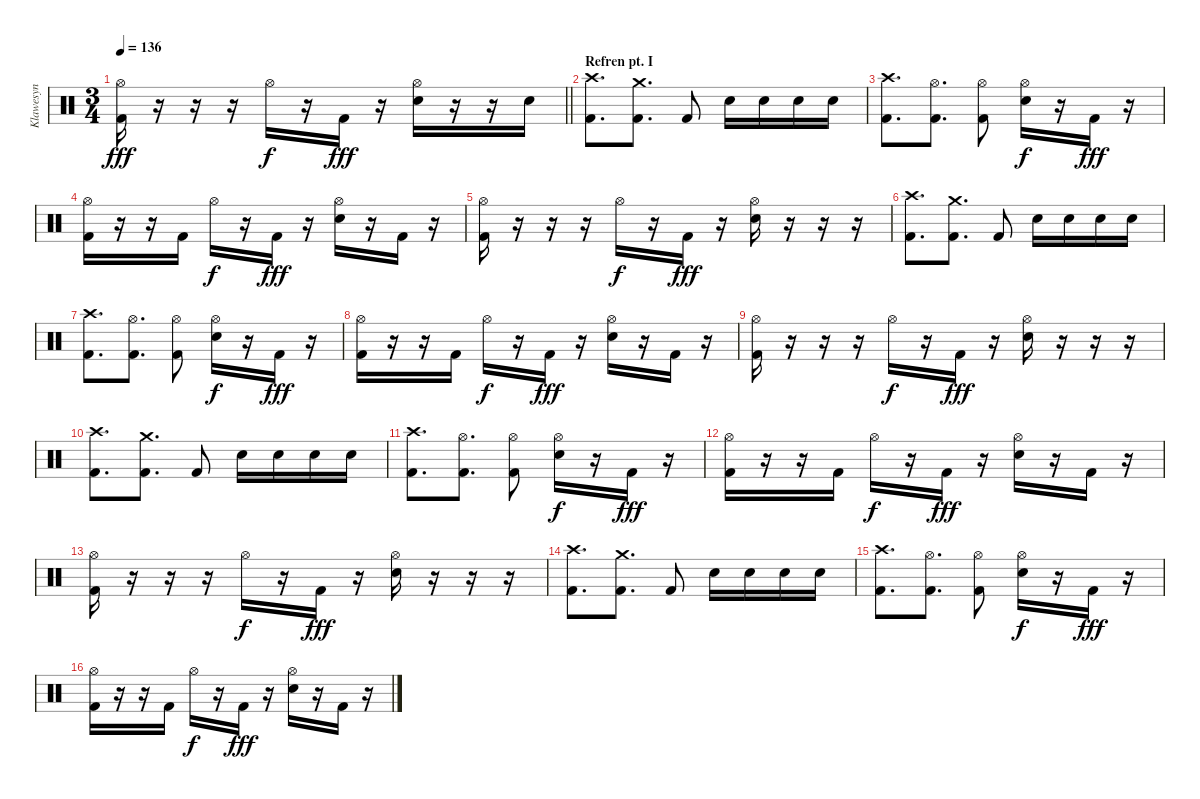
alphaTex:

\track ("Klawesyn" "Klawesyn") {instrument percussion}
\staff {score}
\articulation defaults
\ts (3 4)
\tempo 136
\clef neutral
\barLineRight lightlight
\ks c
("Hi-Hat (open)" "Kick (hit) 2").16{dy fff} r.16 r.16 r.16 "Hi-Hat (open)".16{dy f} r.16 "Kick (hit) 2".16{dy fff} r.16 ("Hi-Hat (open)" "Snare (hit) 2").16 r.16 r.16 "Snare (hit) 2".16 |
\section ("" "Refren pt. I")
("Crash high (hit)" "Kick (hit) 2").8{d} ("Crash medium (hit)" "Kick (hit) 2").8{d} "Kick (hit) 2".8 "Snare (hit) 2".16 "Snare (hit) 2".16 "Snare (hit) 2".16 "Snare (hit) 2".16 |
("Crash high (hit)" "Kick (hit) 2").8{d} ("Hi-Hat (open)" "Kick (hit) 2").8{d} ("Hi-Hat (open)" "Kick (hit) 2").8 ("Hi-Hat (open)" "Snare (hit) 2").16{dy f} r.16 "Kick (hit) 2".16{dy fff} r.16 |
("Hi-Hat (open)" "Kick (hit) 2").16 r.16 r.16 "Kick (hit) 2".16 "Hi-Hat (open)".16{dy f} r.16 "Kick (hit) 2".16{dy fff} r.16 ("Hi-Hat (open)" "Snare (hit) 2").16 r.16 "Kick (hit) 2".16 r.16 |
("Hi-Hat (open)" "Kick (hit) 2").16 r.16 r.16 r.16 "Hi-Hat (open)".16{dy f} r.16 "Kick (hit) 2".16{dy fff} r.16 ("Hi-Hat (open)" "Snare (hit) 2").16 r.16 r.16 r.16 |
("Crash high (hit)" "Kick (hit) 2").8{d} ("Crash medium (hit)" "Kick (hit) 2").8{d} "Kick (hit) 2".8 "Snare (hit) 2".16 "Snare (hit) 2".16 "Snare (hit) 2".16 "Snare (hit) 2".16 |
("Crash high (hit)" "Kick (hit) 2").8{d} ("Hi-Hat (open)" "Kick (hit) 2").8{d} ("Hi-Hat (open)" "Kick (hit) 2").8 ("Hi-Hat (open)" "Snare (hit) 2").16{dy f} r.16 "Kick (hit) 2".16{dy fff} r.16 |
("Hi-Hat (open)" "Kick (hit) 2").16 r.16 r.16 "Kick (hit) 2".16 "Hi-Hat (open)".16{dy f} r.16 "Kick (hit) 2".16{dy fff} r.16 ("Hi-Hat (open)" "Snare (hit) 2").16 r.16 "Kick (hit) 2".16 r.16 |
("Hi-Hat (open)" "Kick (hit) 2").16 r.16 r.16 r.16 "Hi-Hat (open)".16{dy f} r.16 "Kick (hit) 2".16{dy fff} r.16 ("Hi-Hat (open)" "Snare (hit) 2").16 r.16 r.16 r.16 |
("Crash high (hit)" "Kick (hit) 2").8{d} ("Crash medium (hit)" "Kick (hit) 2").8{d} "Kick (hit) 2".8 "Snare (hit) 2".16 "Snare (hit) 2".16 "Snare (hit) 2".16 "Snare (hit) 2".16 |
("Crash high (hit)" "Kick (hit) 2").8{d} ("Hi-Hat (open)" "Kick (hit) 2").8{d} ("Hi-Hat (open)" "Kick (hit) 2").8 ("Hi-Hat (open)" "Snare (hit) 2").16{dy f} r.16 "Kick (hit) 2".16{dy fff} r.16 |
("Hi-Hat (open)" "Kick (hit) 2").16 r.16 r.16 "Kick (hit) 2".16 "Hi-Hat (open)".16{dy f} r.16 "Kick (hit) 2".16{dy fff} r.16 ("Hi-Hat (open)" "Snare (hit) 2").16 r.16 "Kick (hit) 2".16 r.16 |
("Hi-Hat (open)" "Kick (hit) 2").16 r.16 r.16 r.16 "Hi-Hat (open)".16{dy f} r.16 "Kick (hit) 2".16{dy fff} r.16 ("Hi-Hat (open)" "Snare (hit) 2").16 r.16 r.16 r.16 |
("Crash high (hit)" "Kick (hit) 2").8{d} ("Crash medium (hit)" "Kick (hit) 2").8{d} "Kick (hit) 2".8 "Snare (hit) 2".16 "Snare (hit) 2".16 "Snare (hit) 2".16 "Snare (hit) 2".16 |
("Crash high (hit)" "Kick (hit) 2").8{d} ("Hi-Hat (open)" "Kick (hit) 2").8{d} ("Hi-Hat (open)" "Kick (hit) 2").8 ("Hi-Hat (open)" "Snare (hit) 2").16{dy f} r.16 "Kick (hit) 2".16{dy fff} r.16 |
("Hi-Hat (open)" "Kick (hit) 2").16 r.16 r.16 "Kick (hit) 2".16 "Hi-Hat (open)".16{dy f} r.16 "Kick (hit) 2".16{dy fff} r.16 ("Hi-Hat (open)" "Snare (hit) 2").16 r.16 "Kick (hit) 2".16 r.16
